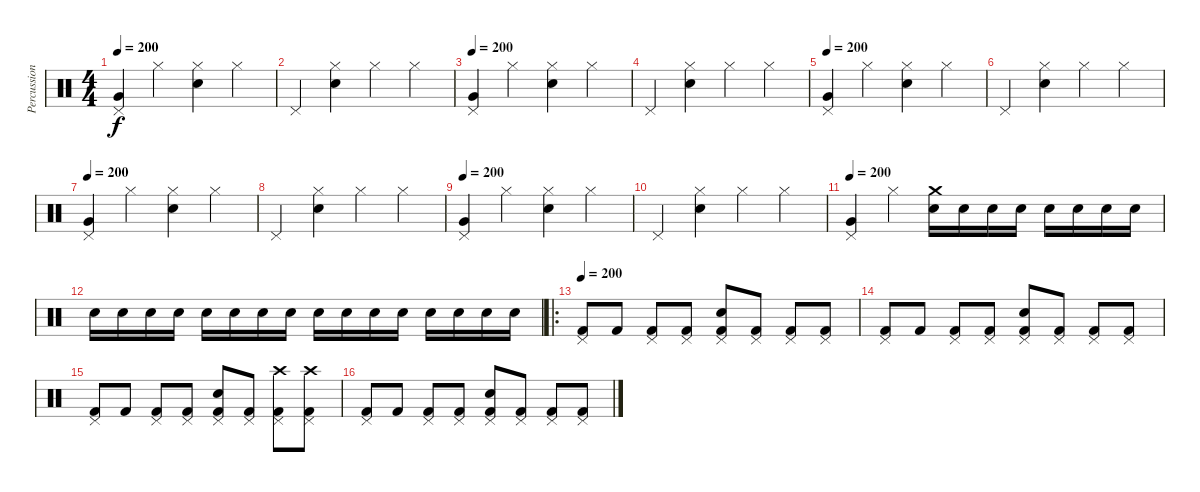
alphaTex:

\track ("Percussion" "Percussion") {instrument percussion}
\staff {score}
\articulation defaults
\ts (4 4)
\tempo 200
\clef neutral
\ks c
("Pedal Hi-Hat (hit)" "Very Low Tom (hit)").4{dy f volume 11} "Hi-Hat (closed)".4 ("Hi-Hat (closed)" "Snare (hit) 2").4 "Hi-Hat (closed)".4 |
"Pedal Hi-Hat (hit)".4 ("Hi-Hat (closed)" "Snare (hit) 2").4 "Hi-Hat (closed)".4 "Hi-Hat (closed)".4 |
\tempo 200
("Pedal Hi-Hat (hit)" "Very Low Tom (hit)").4 "Hi-Hat (closed)".4 ("Hi-Hat (closed)" "Snare (hit) 2").4 "Hi-Hat (closed)".4 |
"Pedal Hi-Hat (hit)".4 ("Hi-Hat (closed)" "Snare (hit) 2").4 "Hi-Hat (closed)".4 "Hi-Hat (closed)".4 |
\tempo 200
("Pedal Hi-Hat (hit)" "Very Low Tom (hit)").4{volume 11} "Hi-Hat (closed)".4 ("Hi-Hat (closed)" "Snare (hit) 2").4 "Hi-Hat (closed)".4 |
"Pedal Hi-Hat (hit)".4 ("Hi-Hat (closed)" "Snare (hit) 2").4 "Hi-Hat (closed)".4 "Hi-Hat (closed)".4 |
\tempo 200
("Pedal Hi-Hat (hit)" "Very Low Tom (hit)").4 "Hi-Hat (closed)".4 ("Hi-Hat (closed)" "Snare (hit) 2").4 "Hi-Hat (closed)".4 |
"Pedal Hi-Hat (hit)".4 ("Hi-Hat (closed)" "Snare (hit) 2").4 "Hi-Hat (closed)".4 "Hi-Hat (closed)".4 |
\tempo 200
("Pedal Hi-Hat (hit)" "Very Low Tom (hit)").4{volume 11} "Hi-Hat (closed)".4 ("Hi-Hat (closed)" "Snare (hit) 2").4 "Hi-Hat (closed)".4 |
"Pedal Hi-Hat (hit)".4 ("Hi-Hat (closed)" "Snare (hit) 2").4 "Hi-Hat (closed)".4 "Hi-Hat (closed)".4 |
\tempo 200
("Pedal Hi-Hat (hit)" "Very Low Tom (hit)").4{volume 11} "Hi-Hat (closed)".4 ("Crash medium (hit)" "Snare (hit) 2").16 "Snare (hit) 2".16 "Snare (hit) 2".16 "Snare (hit) 2".16 "Snare (hit) 2".16 "Snare (hit) 2".16 "Snare (hit) 2".16 "Snare (hit) 2".16 |
"Snare (hit) 2".16 "Snare (hit) 2".16 "Snare (hit) 2".16 "Snare (hit) 2".16 "Electric Snare (hit)".16 "Electric Snare (hit)".16 "Electric Snare (hit)".16 "Electric Snare (hit)".16 "Electric Snare (hit)".16 "Electric Snare (hit)".16 "Electric Snare (hit)".16 "Electric Snare (hit)".16 "Electric Snare (hit)".16 "Electric Snare (hit)".16 "Electric Snare (hit)".16 "Electric Snare (hit)".16 |
\ro
\tempo 200
("Pedal Hi-Hat (hit)" "Kick (hit) 2").8{volume 12} "Kick (hit) 2".8 ("Pedal Hi-Hat (hit)" "Kick (hit) 2").8 ("Pedal Hi-Hat (hit)" "Kick (hit) 2").8 ("Pedal Hi-Hat (hit)" "Snare (hit) 2" "Kick (hit) 2").8 ("Pedal Hi-Hat (hit)" "Kick (hit) 2").8 ("Pedal Hi-Hat (hit)" "Kick (hit) 2").8 ("Pedal Hi-Hat (hit)" "Kick (hit) 2").8 |
("Pedal Hi-Hat (hit)" "Kick (hit) 2").8 "Kick (hit) 2".8 ("Pedal Hi-Hat (hit)" "Kick (hit) 2").8 ("Pedal Hi-Hat (hit)" "Kick (hit) 2").8 ("Pedal Hi-Hat (hit)" "Snare (hit) 2" "Kick (hit) 2").8 ("Pedal Hi-Hat (hit)" "Kick (hit) 2").8 ("Pedal Hi-Hat (hit)" "Kick (hit) 2").8 ("Pedal Hi-Hat (hit)" "Kick (hit) 2").8 |
("Pedal Hi-Hat (hit)" "Kick (hit) 2").8 "Kick (hit) 2".8 ("Pedal Hi-Hat (hit)" "Kick (hit) 2").8 ("Pedal Hi-Hat (hit)" "Kick (hit) 2").8 ("Pedal Hi-Hat (hit)" "Snare (hit) 2" "Kick (hit) 2").8 ("Pedal Hi-Hat (hit)" "Kick (hit) 2").8 ("Pedal Hi-Hat (hit)" "Crash high (hit)" "Kick (hit) 2").8 ("Pedal Hi-Hat (hit)" "Crash high (hit)" "Kick (hit) 2").8 |
("Pedal Hi-Hat (hit)" "Kick (hit) 2").8 "Kick (hit) 2".8 ("Pedal Hi-Hat (hit)" "Kick (hit) 2").8 ("Pedal Hi-Hat (hit)" "Kick (hit) 2").8 ("Pedal Hi-Hat (hit)" "Snare (hit) 2" "Kick (hit) 2").8 ("Pedal Hi-Hat (hit)" "Kick (hit) 2").8 ("Pedal Hi-Hat (hit)" "Kick (hit) 2").8 ("Pedal Hi-Hat (hit)" "Kick (hit) 2").8
